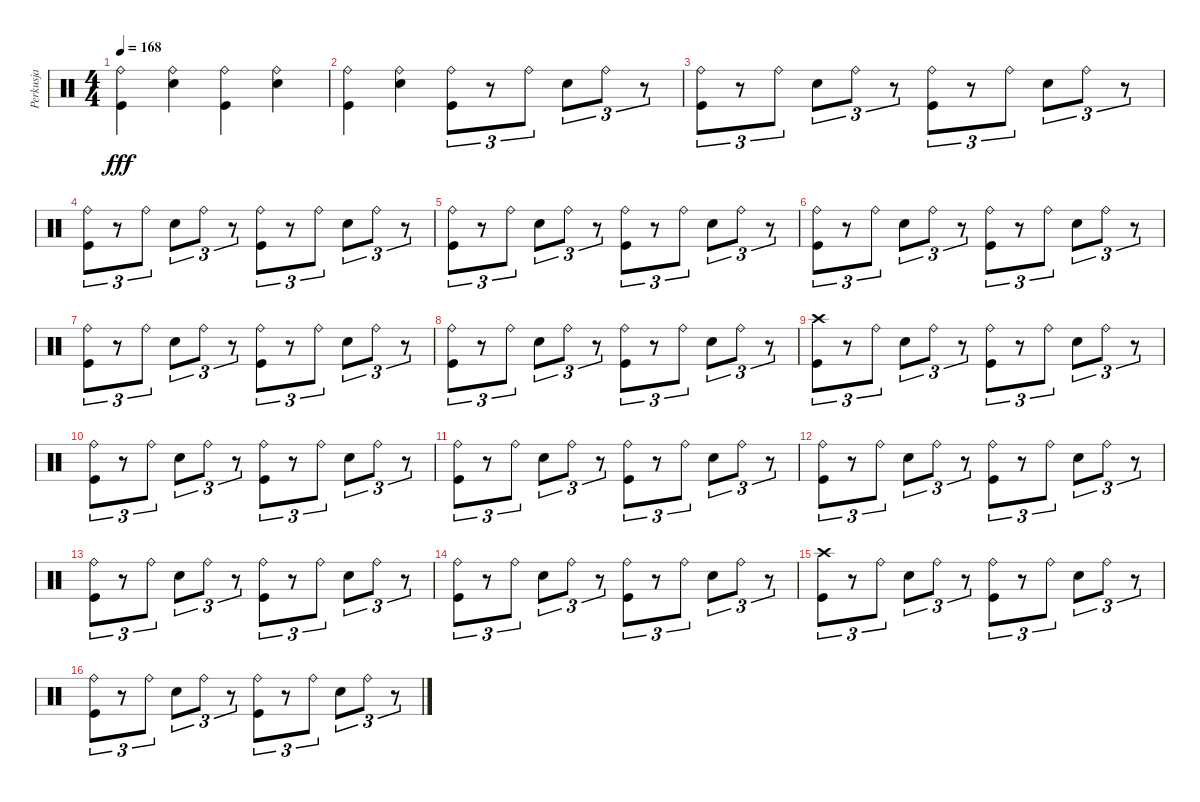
\track ("Perkusja" "Perkusja") {instrument percussion}
\staff {score}
\articulation defaults
\ts (4 4)
\tempo 168
\clef neutral
\ks c
("Ride (bell)" "Kick (hit)").4{dy fff} ("Ride (bell)" "Snare (hit) 2").4 ("Ride (bell)" "Kick (hit)").4 ("Ride (bell)" "Snare (hit) 2").4 |
("Ride (bell)" "Kick (hit)").4 ("Ride (bell)" "Snare (hit) 2").4 ("Ride (bell)" "Kick (hit)").8{tu (3 2)} r.8{tu (3 2)} "Ride (bell)".8{tu (3 2)} "Snare (hit) 2".8{tu (3 2)} "Ride (bell)".8{tu (3 2)} r.8{tu (3 2)} |
("Ride (bell)" "Kick (hit)").8{tu (3 2)} r.8{tu (3 2)} "Ride (bell)".8{tu (3 2)} "Snare (hit) 2".8{tu (3 2)} "Ride (bell)".8{tu (3 2)} r.8{tu (3 2)} ("Ride (bell)" "Kick (hit)").8{tu (3 2)} r.8{tu (3 2)} "Ride (bell)".8{tu (3 2)} "Snare (hit) 2".8{tu (3 2)} "Ride (bell)".8{tu (3 2)} r.8{tu (3 2)} |
("Ride (bell)" "Kick (hit)").8{tu (3 2)} r.8{tu (3 2)} "Ride (bell)".8{tu (3 2)} "Snare (hit) 2".8{tu (3 2)} "Ride (bell)".8{tu (3 2)} r.8{tu (3 2)} ("Ride (bell)" "Kick (hit)").8{tu (3 2)} r.8{tu (3 2)} "Ride (bell)".8{tu (3 2)} "Snare (hit) 2".8{tu (3 2)} "Ride (bell)".8{tu (3 2)} r.8{tu (3 2)} |
("Ride (bell)" "Kick (hit)").8{tu (3 2)} r.8{tu (3 2)} "Ride (bell)".8{tu (3 2)} "Snare (hit) 2".8{tu (3 2)} "Ride (bell)".8{tu (3 2)} r.8{tu (3 2)} ("Ride (bell)" "Kick (hit)").8{tu (3 2)} r.8{tu (3 2)} "Ride (bell)".8{tu (3 2)} "Snare (hit) 2".8{tu (3 2)} "Ride (bell)".8{tu (3 2)} r.8{tu (3 2)} |
("Ride (bell)" "Kick (hit)").8{tu (3 2)} r.8{tu (3 2)} "Ride (bell)".8{tu (3 2)} "Snare (hit) 2".8{tu (3 2)} "Ride (bell)".8{tu (3 2)} r.8{tu (3 2)} ("Ride (bell)" "Kick (hit)").8{tu (3 2)} r.8{tu (3 2)} "Ride (bell)".8{tu (3 2)} "Snare (hit) 2".8{tu (3 2)} "Ride (bell)".8{tu (3 2)} r.8{tu (3 2)} |
("Ride (bell)" "Kick (hit)").8{tu (3 2)} r.8{tu (3 2)} "Ride (bell)".8{tu (3 2)} "Snare (hit) 2".8{tu (3 2)} "Ride (bell)".8{tu (3 2)} r.8{tu (3 2)} ("Ride (bell)" "Kick (hit)").8{tu (3 2)} r.8{tu (3 2)} "Ride (bell)".8{tu (3 2)} "Snare (hit) 2".8{tu (3 2)} "Ride (bell)".8{tu (3 2)} r.8{tu (3 2)} |
("Ride (bell)" "Kick (hit)").8{tu (3 2)} r.8{tu (3 2)} "Ride (bell)".8{tu (3 2)} "Snare (hit) 2".8{tu (3 2)} "Ride (bell)".8{tu (3 2)} r.8{tu (3 2)} ("Ride (bell)" "Kick (hit)").8{tu (3 2)} r.8{tu (3 2)} "Ride (bell)".8{tu (3 2)} "Snare (hit) 2".8{tu (3 2)} "Ride (bell)".8{tu (3 2)} r.8{tu (3 2)} |
("Crash high (hit)" "Kick (hit)").8{tu (3 2)} r.8{tu (3 2)} "Ride (bell)".8{tu (3 2)} "Snare (hit) 2".8{tu (3 2)} "Ride (bell)".8{tu (3 2)} r.8{tu (3 2)} ("Ride (bell)" "Kick (hit)").8{tu (3 2)} r.8{tu (3 2)} "Ride (bell)".8{tu (3 2)} "Snare (hit) 2".8{tu (3 2)} "Ride (bell)".8{tu (3 2)} r.8{tu (3 2)} |
("Ride (bell)" "Kick (hit)").8{tu (3 2)} r.8{tu (3 2)} "Ride (bell)".8{tu (3 2)} "Snare (hit) 2".8{tu (3 2)} "Ride (bell)".8{tu (3 2)} r.8{tu (3 2)} ("Ride (bell)" "Kick (hit)").8{tu (3 2)} r.8{tu (3 2)} "Ride (bell)".8{tu (3 2)} "Snare (hit) 2".8{tu (3 2)} "Ride (bell)".8{tu (3 2)} r.8{tu (3 2)} |
("Ride (bell)" "Kick (hit)").8{tu (3 2)} r.8{tu (3 2)} "Ride (bell)".8{tu (3 2)} "Snare (hit) 2".8{tu (3 2)} "Ride (bell)".8{tu (3 2)} r.8{tu (3 2)} ("Ride (bell)" "Kick (hit)").8{tu (3 2)} r.8{tu (3 2)} "Ride (bell)".8{tu (3 2)} "Snare (hit) 2".8{tu (3 2)} "Ride (bell)".8{tu (3 2)} r.8{tu (3 2)} |
("Ride (bell)" "Kick (hit)").8{tu (3 2)} r.8{tu (3 2)} "Ride (bell)".8{tu (3 2)} "Snare (hit) 2".8{tu (3 2)} "Ride (bell)".8{tu (3 2)} r.8{tu (3 2)} ("Ride (bell)" "Kick (hit)").8{tu (3 2)} r.8{tu (3 2)} "Ride (bell)".8{tu (3 2)} "Snare (hit) 2".8{tu (3 2)} "Ride (bell)".8{tu (3 2)} r.8{tu (3 2)} |
("Ride (bell)" "Kick (hit)").8{tu (3 2)} r.8{tu (3 2)} "Ride (bell)".8{tu (3 2)} "Snare (hit) 2".8{tu (3 2)} "Ride (bell)".8{tu (3 2)} r.8{tu (3 2)} ("Ride (bell)" "Kick (hit)").8{tu (3 2)} r.8{tu (3 2)} "Ride (bell)".8{tu (3 2)} "Snare (hit) 2".8{tu (3 2)} "Ride (bell)".8{tu (3 2)} r.8{tu (3 2)} |
("Ride (bell)" "Kick (hit)").8{tu (3 2)} r.8{tu (3 2)} "Ride (bell)".8{tu (3 2)} "Snare (hit) 2".8{tu (3 2)} "Ride (bell)".8{tu (3 2)} r.8{tu (3 2)} ("Ride (bell)" "Kick (hit)").8{tu (3 2)} r.8{tu (3 2)} "Ride (bell)".8{tu (3 2)} "Snare (hit) 2".8{tu (3 2)} "Ride (bell)".8{tu (3 2)} r.8{tu (3 2)} |
("Crash high (hit)" "Kick (hit)").8{tu (3 2)} r.8{tu (3 2)} "Ride (bell)".8{tu (3 2)} "Snare (hit) 2".8{tu (3 2)} "Ride (bell)".8{tu (3 2)} r.8{tu (3 2)} ("Ride (bell)" "Kick (hit)").8{tu (3 2)} r.8{tu (3 2)} "Ride (bell)".8{tu (3 2)} "Snare (hit) 2".8{tu (3 2)} "Ride (bell)".8{tu (3 2)} r.8{tu (3 2)} |
("Ride (bell)" "Kick (hit)").8{tu (3 2)} r.8{tu (3 2)} "Ride (bell)".8{tu (3 2)} "Snare (hit) 2".8{tu (3 2)} "Ride (bell)".8{tu (3 2)} r.8{tu (3 2)} ("Ride (bell)" "Kick (hit)").8{tu (3 2)} r.8{tu (3 2)} "Ride (bell)".8{tu (3 2)} "Snare (hit) 2".8{tu (3 2)} "Ride (bell)".8{tu (3 2)} r.8{tu (3 2)}
